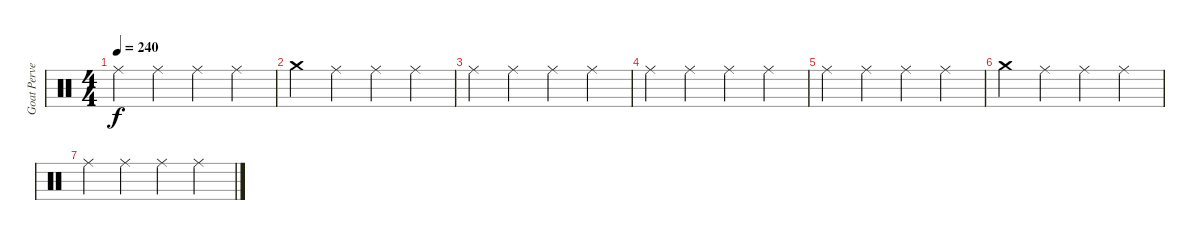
\track ("Goat Pervertor2" "Goat Perve") {instrument percussion}
\staff {score}
\articulation defaults
\ts (4 4)
\tempo 240
\clef neutral
\ks c "Ride (middle)".4{dy f} "Ride (middle)".4 "Ride (middle)".4 "Ride (middle)".4
|
"Crash medium (hit)".4 "Ride (middle)".4 "Ride (middle)".4 "Ride (middle)".4 |
"Ride (middle)".4 "Ride (middle)".4 "Ride (middle)".4 "Ride (middle)".4 |
"Ride (middle)".4 "Ride (middle)".4 "Ride (middle)".4 "Ride (middle)".4 |
"Ride (middle)".4 "Ride (middle)".4 "Ride (middle)".4 "Ride (middle)".4 |
"Crash medium (hit)".4 "Ride (middle)".4 "Ride (middle)".4 "Ride (middle)".4 |
"Ride (middle)".4 "Ride (middle)".4 "Ride (middle)".4 "Ride (middle)".4
